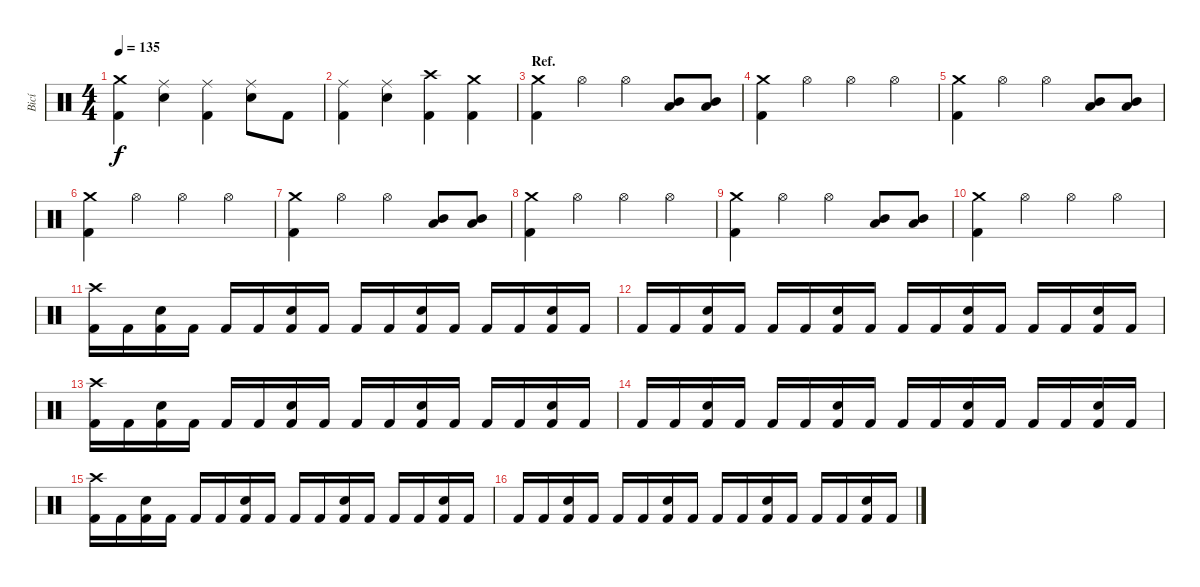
\track ("Bicí" "Bicí") {instrument percussion}
\staff {score}
\articulation defaults
\ts (4 4)
\tempo 135
\clef neutral
\ks c
("Crash medium (hit)" "Kick (hit) 2").4{dy f} ("Ride (middle)" "Snare (hit) 2").4 ("Ride (middle)" "Kick (hit) 2").4 ("Ride (middle)" "Snare (hit) 2").8 "Kick (hit) 2".8 |
("Ride (middle)" "Kick (hit) 2").4 ("Ride (middle)" "Snare (hit) 2").4 ("Crash high (hit)" "Kick (hit) 2").4 ("Crash medium (hit)" "Kick (hit) 2").4 |
\section ("" "Ref.")
("Crash medium (hit)" "Kick (hit) 2").4 "Hi-Hat (open)".4 "Hi-Hat (open)".4 ("Mid Tom (hit)" "Low Tom (hit)").8 ("Mid Tom (hit)" "Low Tom (hit)").8 |
("Crash medium (hit)" "Kick (hit) 2").4 "Hi-Hat (open)".4 "Hi-Hat (open)".4 "Hi-Hat (open)".4 |
("Crash medium (hit)" "Kick (hit) 2").4 "Hi-Hat (open)".4 "Hi-Hat (open)".4 ("Mid Tom (hit)" "Low Tom (hit)").8 ("Mid Tom (hit)" "Low Tom (hit)").8 |
("Crash medium (hit)" "Kick (hit) 2").4 "Hi-Hat (open)".4 "Hi-Hat (open)".4 "Hi-Hat (open)".4 |
("Crash medium (hit)" "Kick (hit) 2").4 "Hi-Hat (open)".4 "Hi-Hat (open)".4 ("Mid Tom (hit)" "Low Tom (hit)").8 ("Mid Tom (hit)" "Low Tom (hit)").8 |
("Crash medium (hit)" "Kick (hit) 2").4 "Hi-Hat (open)".4 "Hi-Hat (open)".4 "Hi-Hat (open)".4 |
("Crash medium (hit)" "Kick (hit) 2").4 "Hi-Hat (open)".4 "Hi-Hat (open)".4 ("Mid Tom (hit)" "Low Tom (hit)").8 ("Mid Tom (hit)" "Low Tom (hit)").8 |
("Crash medium (hit)" "Kick (hit) 2").4 "Hi-Hat (open)".4 "Hi-Hat (open)".4 "Hi-Hat (open)".4 |
("Crash high (hit)" "Kick (hit) 2").16 "Kick (hit) 2".16 ("Snare (hit) 2" "Kick (hit) 2").16 "Kick (hit) 2".16 "Kick (hit) 2".16 "Kick (hit) 2".16 ("Snare (hit) 2" "Kick (hit) 2").16 "Kick (hit) 2".16 "Kick (hit) 2".16 "Kick (hit) 2".16 ("Snare (hit) 2" "Kick (hit) 2").16 "Kick (hit) 2".16 "Kick (hit) 2".16 "Kick (hit) 2".16 ("Snare (hit) 2" "Kick (hit) 2").16 "Kick (hit) 2".16 |
"Kick (hit) 2".16 "Kick (hit) 2".16 ("Snare (hit) 2" "Kick (hit) 2").16 "Kick (hit) 2".16 "Kick (hit) 2".16 "Kick (hit) 2".16 ("Snare (hit) 2" "Kick (hit) 2").16 "Kick (hit) 2".16 "Kick (hit) 2".16 "Kick (hit) 2".16 ("Snare (hit) 2" "Kick (hit) 2").16 "Kick (hit) 2".16 "Kick (hit) 2".16 "Kick (hit) 2".16 ("Snare (hit) 2" "Kick (hit) 2").16 "Kick (hit) 2".16 |
("Crash high (hit)" "Kick (hit) 2").16 "Kick (hit) 2".16 ("Snare (hit) 2" "Kick (hit) 2").16 "Kick (hit) 2".16 "Kick (hit) 2".16 "Kick (hit) 2".16 ("Snare (hit) 2" "Kick (hit) 2").16 "Kick (hit) 2".16 "Kick (hit) 2".16 "Kick (hit) 2".16 ("Snare (hit) 2" "Kick (hit) 2").16 "Kick (hit) 2".16 "Kick (hit) 2".16 "Kick (hit) 2".16 ("Snare (hit) 2" "Kick (hit) 2").16 "Kick (hit) 2".16 |
"Kick (hit) 2".16 "Kick (hit) 2".16 ("Snare (hit) 2" "Kick (hit) 2").16 "Kick (hit) 2".16 "Kick (hit) 2".16 "Kick (hit) 2".16 ("Snare (hit) 2" "Kick (hit) 2").16 "Kick (hit) 2".16 "Kick (hit) 2".16 "Kick (hit) 2".16 ("Snare (hit) 2" "Kick (hit) 2").16 "Kick (hit) 2".16 "Kick (hit) 2".16 "Kick (hit) 2".16 ("Snare (hit) 2" "Kick (hit) 2").16 "Kick (hit) 2".16 |
("Crash high (hit)" "Kick (hit) 2").16 "Kick (hit) 2".16 ("Snare (hit) 2" "Kick (hit) 2").16 "Kick (hit) 2".16 "Kick (hit) 2".16 "Kick (hit) 2".16 ("Snare (hit) 2" "Kick (hit) 2").16 "Kick (hit) 2".16 "Kick (hit) 2".16 "Kick (hit) 2".16 ("Snare (hit) 2" "Kick (hit) 2").16 "Kick (hit) 2".16 "Kick (hit) 2".16 "Kick (hit) 2".16 ("Snare (hit) 2" "Kick (hit) 2").16 "Kick (hit) 2".16 |
"Kick (hit) 2".16 "Kick (hit) 2".16 ("Snare (hit) 2" "Kick (hit) 2").16 "Kick (hit) 2".16 "Kick (hit) 2".16 "Kick (hit) 2".16 ("Snare (hit) 2" "Kick (hit) 2").16 "Kick (hit) 2".16 "Kick (hit) 2".16 "Kick (hit) 2".16 ("Snare (hit) 2" "Kick (hit) 2").16 "Kick (hit) 2".16 "Kick (hit) 2".16 "Kick (hit) 2".16 ("Snare (hit) 2" "Kick (hit) 2").16 "Kick (hit) 2".16
